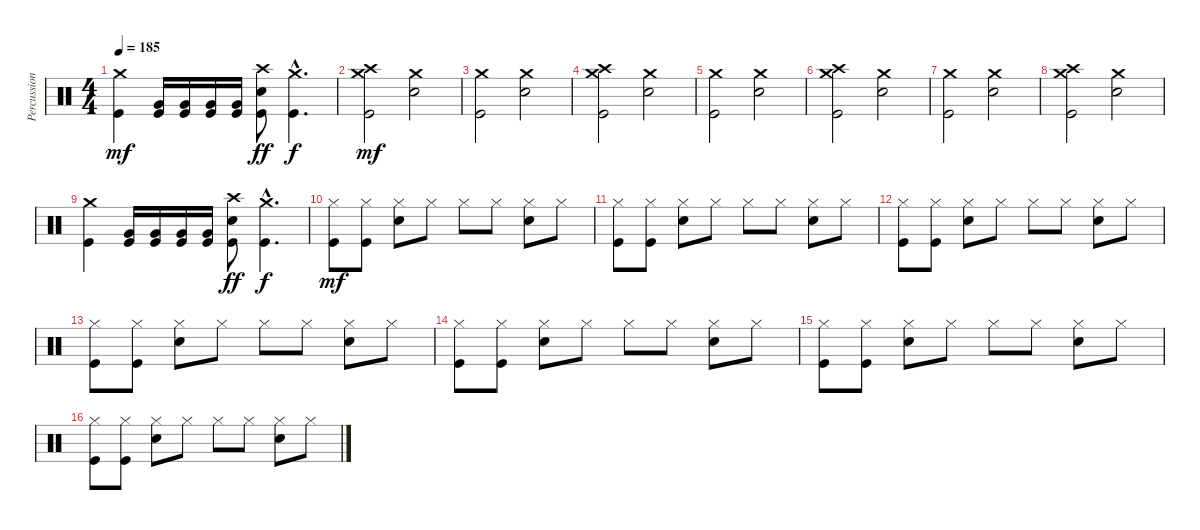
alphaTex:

\track ("Percussions" "Percussion") {instrument percussion}
\staff {score}
\articulation defaults
\ts (4 4)
\tempo 185
\clef neutral
\ks c
("Kick (hit)" "Crash medium (hit)").4{dy mf} ("Kick (hit)" "Very Low Tom (hit)").16 ("Kick (hit)" "Very Low Tom (hit)").16 ("Kick (hit)" "Very Low Tom (hit)").16 ("Kick (hit)" "Very Low Tom (hit)").16 ("Kick (hit)" "Electric Snare (hit)" "Crash high (hit)").8{dy ff} ("Kick (hit)"{hac} "Crash medium (hit)"{hac}).4{d dy f} |
("Kick (hit)" "Crash medium (hit)" "Crash high (hit)").2{dy mf} ("Electric Snare (hit)" "Crash medium (hit)").2 |
("Kick (hit)" "Crash medium (hit)").2 ("Electric Snare (hit)" "Crash medium (hit)").2 |
("Kick (hit)" "Crash medium (hit)" "Crash high (hit)").2 ("Electric Snare (hit)" "Crash medium (hit)").2 |
("Kick (hit)" "Crash medium (hit)").2 ("Electric Snare (hit)" "Crash medium (hit)").2 |
("Kick (hit)" "Crash medium (hit)" "Crash high (hit)").2 ("Electric Snare (hit)" "Crash medium (hit)").2 |
("Kick (hit)" "Crash medium (hit)").2 ("Electric Snare (hit)" "Crash medium (hit)").2 |
("Kick (hit)" "Crash medium (hit)" "Crash high (hit)").2 ("Electric Snare (hit)" "Crash medium (hit)").2 |
("Kick (hit)" "Crash medium (hit)").4 ("Kick (hit)" "Very Low Tom (hit)").16 ("Kick (hit)" "Very Low Tom (hit)").16 ("Kick (hit)" "Very Low Tom (hit)").16 ("Kick (hit)" "Very Low Tom (hit)").16 ("Kick (hit)" "Electric Snare (hit)" "Crash high (hit)").8{dy ff} ("Kick (hit)"{hac} "Crash medium (hit)"{hac}).4{d dy f} |
("Kick (hit)" "Hi-Hat (closed)").8{dy mf} ("Kick (hit)" "Hi-Hat (closed)").8 ("Electric Snare (hit)" "Hi-Hat (closed)").8 "Hi-Hat (closed)".8 "Hi-Hat (closed)".8 "Hi-Hat (closed)".8 ("Electric Snare (hit)" "Hi-Hat (closed)").8 "Hi-Hat (closed)".8 |
("Kick (hit)" "Hi-Hat (closed)").8 ("Kick (hit)" "Hi-Hat (closed)").8 ("Electric Snare (hit)" "Hi-Hat (closed)").8 "Hi-Hat (closed)".8 "Hi-Hat (closed)".8 "Hi-Hat (closed)".8 ("Electric Snare (hit)" "Hi-Hat (closed)").8 "Hi-Hat (closed)".8 |
("Kick (hit)" "Hi-Hat (closed)").8 ("Kick (hit)" "Hi-Hat (closed)").8 ("Electric Snare (hit)" "Hi-Hat (closed)").8 "Hi-Hat (closed)".8 "Hi-Hat (closed)".8 "Hi-Hat (closed)".8 ("Electric Snare (hit)" "Hi-Hat (closed)").8 "Hi-Hat (closed)".8 |
("Kick (hit)" "Hi-Hat (closed)").8 ("Kick (hit)" "Hi-Hat (closed)").8 ("Electric Snare (hit)" "Hi-Hat (closed)").8 "Hi-Hat (closed)".8 "Hi-Hat (closed)".8 "Hi-Hat (closed)".8 ("Electric Snare (hit)" "Hi-Hat (closed)").8 "Hi-Hat (closed)".8 |
("Kick (hit)" "Hi-Hat (closed)").8 ("Kick (hit)" "Hi-Hat (closed)").8 ("Electric Snare (hit)" "Hi-Hat (closed)").8 "Hi-Hat (closed)".8 "Hi-Hat (closed)".8 "Hi-Hat (closed)".8 ("Electric Snare (hit)" "Hi-Hat (closed)").8 "Hi-Hat (closed)".8 |
("Kick (hit)" "Hi-Hat (closed)").8 ("Kick (hit)" "Hi-Hat (closed)").8 ("Electric Snare (hit)" "Hi-Hat (closed)").8 "Hi-Hat (closed)".8 "Hi-Hat (closed)".8 "Hi-Hat (closed)".8 ("Electric Snare (hit)" "Hi-Hat (closed)").8 "Hi-Hat (closed)".8 |
("Kick (hit)" "Hi-Hat (closed)").8 ("Kick (hit)" "Hi-Hat (closed)").8 ("Electric Snare (hit)" "Hi-Hat (closed)").8 "Hi-Hat (closed)".8 "Hi-Hat (closed)".8 "Hi-Hat (closed)".8 ("Electric Snare (hit)" "Hi-Hat (closed)").8 "Hi-Hat (closed)".8
